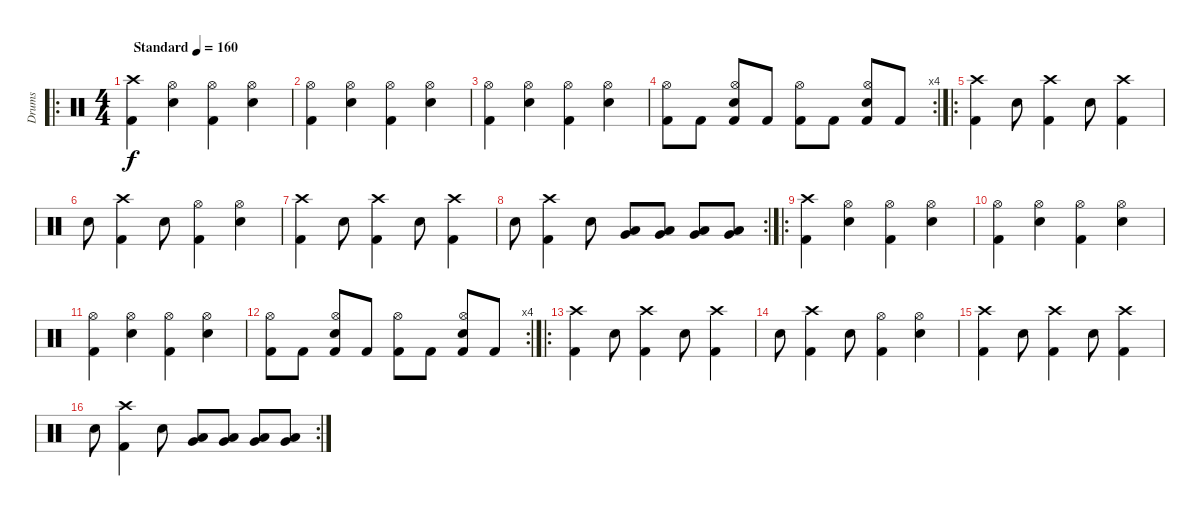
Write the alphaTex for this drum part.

\track ("Drums" "Drums") {instrument percussion}
\staff {score}
\articulation defaults
\ro
\ts (4 4)
\tempo (160 "Standard")
\clef neutral
\ks c
("Crash high (hit)" "Kick (hit) 2").4{dy f} ("Hi-Hat (open)" "Snare (hit) 2").4 ("Hi-Hat (open)" "Kick (hit) 2").4 ("Hi-Hat (open)" "Snare (hit) 2").4 |
("Hi-Hat (open)" "Kick (hit) 2").4 ("Hi-Hat (open)" "Snare (hit) 2").4 ("Hi-Hat (open)" "Kick (hit) 2").4 ("Hi-Hat (open)" "Snare (hit) 2").4 |
("Hi-Hat (open)" "Kick (hit) 2").4 ("Hi-Hat (open)" "Snare (hit) 2").4 ("Hi-Hat (open)" "Kick (hit) 2").4 ("Hi-Hat (open)" "Snare (hit) 2").4 |
\rc 4
("Hi-Hat (open)" "Kick (hit) 2").8 "Kick (hit) 2".8 ("Hi-Hat (open)" "Snare (hit) 2" "Kick (hit) 2").8 "Kick (hit) 2".8 ("Hi-Hat (open)" "Kick (hit) 2").8 "Kick (hit) 2".8 ("Hi-Hat (open)" "Snare (hit) 2" "Kick (hit) 2").8 "Kick (hit) 2".8 |
\ro
("Crash high (hit)" "Kick (hit) 2").4 "Snare (hit) 2".8 ("Crash high (hit)" "Kick (hit) 2").4 "Snare (hit) 2".8 ("Crash high (hit)" "Kick (hit) 2").4 |
"Snare (hit) 2".8 ("Crash high (hit)" "Kick (hit) 2").4 "Snare (hit) 2".8 ("Hi-Hat (open)" "Kick (hit) 2").4 ("Hi-Hat (open)" "Snare (hit) 2").4 |
("Crash high (hit)" "Kick (hit) 2").4 "Snare (hit) 2".8 ("Crash high (hit)" "Kick (hit) 2").4 "Snare (hit) 2".8 ("Crash high (hit)" "Kick (hit) 2").4 |
\rc 2 "Snare (hit) 2".8
("Crash high (hit)" "Kick (hit) 2").4 "Snare (hit) 2".8 ("Low Tom (hit)" "Very Low Tom (hit)").8 ("Low Tom (hit)" "Very Low Tom (hit)").8 ("Low Tom (hit)" "Very Low Tom (hit)").8 ("Low Tom (hit)" "Very Low Tom (hit)").8 |
\ro
("Crash high (hit)" "Kick (hit) 2").4 ("Hi-Hat (open)" "Snare (hit) 2").4 ("Hi-Hat (open)" "Kick (hit) 2").4 ("Hi-Hat (open)" "Snare (hit) 2").4 |
("Hi-Hat (open)" "Kick (hit) 2").4 ("Hi-Hat (open)" "Snare (hit) 2").4 ("Hi-Hat (open)" "Kick (hit) 2").4 ("Hi-Hat (open)" "Snare (hit) 2").4 |
("Hi-Hat (open)" "Kick (hit) 2").4 ("Hi-Hat (open)" "Snare (hit) 2").4 ("Hi-Hat (open)" "Kick (hit) 2").4 ("Hi-Hat (open)" "Snare (hit) 2").4 |
\rc 4
("Hi-Hat (open)" "Kick (hit) 2").8 "Kick (hit) 2".8 ("Hi-Hat (open)" "Snare (hit) 2" "Kick (hit) 2").8 "Kick (hit) 2".8 ("Hi-Hat (open)" "Kick (hit) 2").8 "Kick (hit) 2".8 ("Hi-Hat (open)" "Snare (hit) 2" "Kick (hit) 2").8 "Kick (hit) 2".8 |
\ro
("Crash high (hit)" "Kick (hit) 2").4 "Snare (hit) 2".8 ("Crash high (hit)" "Kick (hit) 2").4 "Snare (hit) 2".8 ("Crash high (hit)" "Kick (hit) 2").4 |
"Snare (hit) 2".8 ("Crash high (hit)" "Kick (hit) 2").4 "Snare (hit) 2".8 ("Hi-Hat (open)" "Kick (hit) 2").4 ("Hi-Hat (open)" "Snare (hit) 2").4 |
("Crash high (hit)" "Kick (hit) 2").4 "Snare (hit) 2".8 ("Crash high (hit)" "Kick (hit) 2").4 "Snare (hit) 2".8 ("Crash high (hit)" "Kick (hit) 2").4 |
\rc 2 "Snare (hit) 2".8
("Crash high (hit)" "Kick (hit) 2").4 "Snare (hit) 2".8 ("Low Tom (hit)" "Very Low Tom (hit)").8 ("Low Tom (hit)" "Very Low Tom (hit)").8 ("Low Tom (hit)" "Very Low Tom (hit)").8 ("Low Tom (hit)" "Very Low Tom (hit)").8
